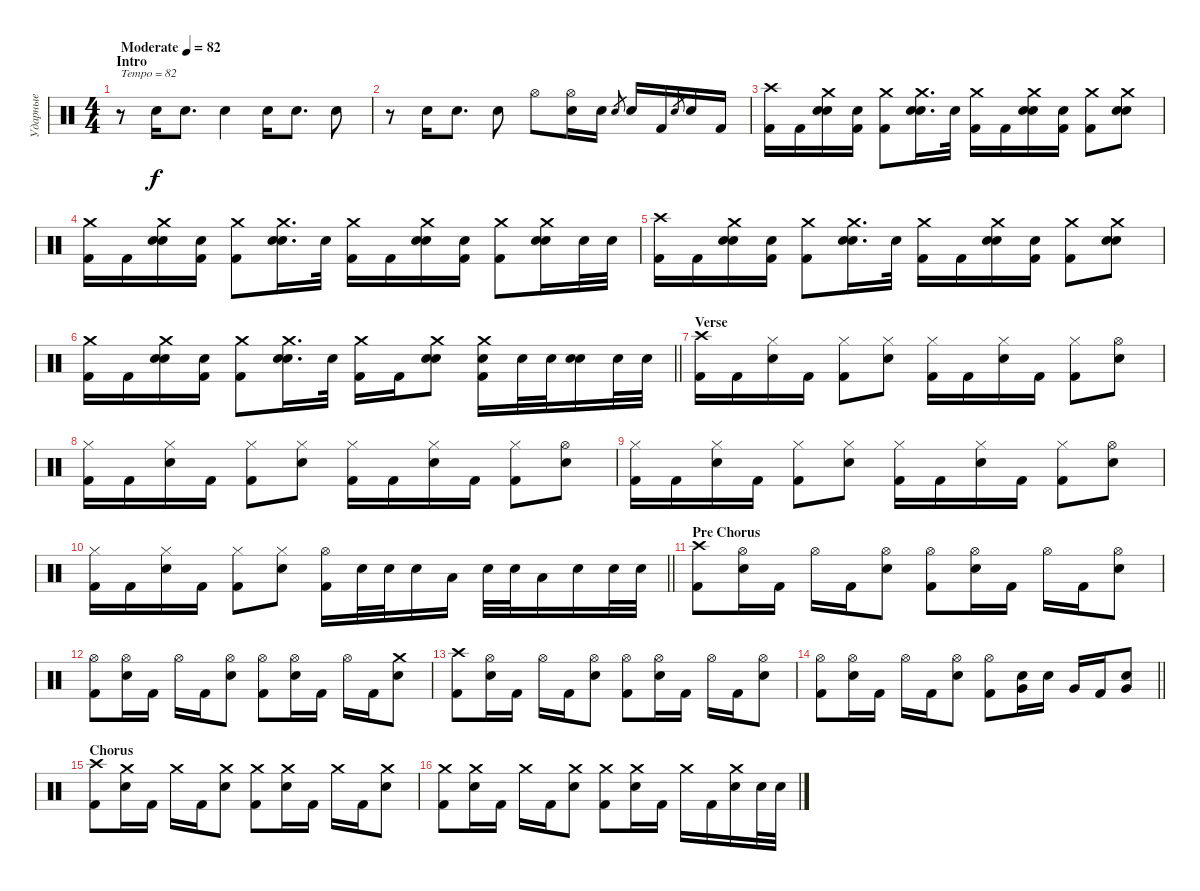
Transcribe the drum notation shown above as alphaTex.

\track ("Ударные" "Ударные") {instrument percussion}
\staff {score}
\articulation defaults
\ts (4 4)
\section ("" "Intro")
\tempo (82 "Moderate")
\clef neutral
\ks c
r.8{txt "Tempo = 82" dy f} "Hand Clap (hit)".16 "Hand Clap (hit)".8{d} "Hand Clap (hit)".4 "Hand Clap (hit)".16 "Hand Clap (hit)".8{d} "Hand Clap (hit)".8 |
r.8 "Hand Clap (hit)".16 "Hand Clap (hit)".8{d} "Hand Clap (hit)".8 "Hi-Hat (open)".8 ("Hand Clap (hit)" "Hi-Hat (open)").16 "Hand Clap (hit)".16 "Snare (hit) 2".8{gr} "Snare (hit) 2".16 "Kick (hit) 2".16 "Snare (hit) 2".8{gr} "Snare (hit) 2".16 "Kick (hit) 2".16 |
("Crash high (hit)" "Kick (hit) 2").16 "Kick (hit) 2".16 ("Crash medium (hit)" "Hand Clap (hit)" "Snare (hit) 2").16 ("Hand Clap (hit)" "Kick (hit) 2").16 ("Crash medium (hit)" "Kick (hit) 2").8 ("Crash medium (hit)" "Hand Clap (hit)" "Snare (hit) 2").16{d} "Snare (hit) 2".32 ("Crash medium (hit)" "Kick (hit) 2").16 "Kick (hit) 2".16 ("Crash medium (hit)" "Hand Clap (hit)" "Snare (hit) 2").16 ("Hand Clap (hit)" "Kick (hit) 2").16 ("Crash medium (hit)" "Kick (hit) 2").8 ("Crash medium (hit)" "Hand Clap (hit)" "Snare (hit) 2").8 |
("Crash medium (hit)" "Kick (hit) 2").16 "Kick (hit) 2".16 ("Crash medium (hit)" "Hand Clap (hit)" "Snare (hit) 2").16 ("Hand Clap (hit)" "Kick (hit) 2").16 ("Crash medium (hit)" "Kick (hit) 2").8 ("Crash medium (hit)" "Hand Clap (hit)" "Snare (hit) 2").16{d} "Snare (hit) 2".32 ("Crash medium (hit)" "Kick (hit) 2").16 "Kick (hit) 2".16 ("Crash medium (hit)" "Hand Clap (hit)" "Snare (hit) 2").16 ("Hand Clap (hit)" "Kick (hit) 2").16 ("Crash medium (hit)" "Kick (hit) 2").8 ("Crash medium (hit)" "Hand Clap (hit)" "Snare (hit) 2").16 "Snare (hit) 2".32 "Snare (hit) 2".32 |
("Crash high (hit)" "Kick (hit) 2").16 "Kick (hit) 2".16 ("Crash medium (hit)" "Hand Clap (hit)" "Snare (hit) 2").16 ("Hand Clap (hit)" "Kick (hit) 2").16 ("Crash medium (hit)" "Kick (hit) 2").8 ("Crash medium (hit)" "Hand Clap (hit)" "Snare (hit) 2").16{d} "Snare (hit) 2".32 ("Crash medium (hit)" "Kick (hit) 2").16 "Kick (hit) 2".16 ("Crash medium (hit)" "Hand Clap (hit)" "Snare (hit) 2").16 ("Hand Clap (hit)" "Kick (hit) 2").16 ("Crash medium (hit)" "Kick (hit) 2").8 ("Crash medium (hit)" "Hand Clap (hit)" "Snare (hit) 2").8 |
\barLineRight lightlight
("Crash medium (hit)" "Kick (hit) 2").16 "Kick (hit) 2".16 ("Crash medium (hit)" "Hand Clap (hit)" "Snare (hit) 2").16 ("Hand Clap (hit)" "Kick (hit) 2").16 ("Crash medium (hit)" "Kick (hit) 2").8 ("Crash medium (hit)" "Hand Clap (hit)" "Snare (hit) 2").16{d} "Snare (hit) 2".32 ("Crash medium (hit)" "Kick (hit) 2").16 "Kick (hit) 2".16 ("Crash medium (hit)" "Hand Clap (hit)" "Snare (hit) 2").8 ("Crash medium (hit)" "Hand Clap (hit)" "Kick (hit) 2").16 "Snare (hit) 2".32 "Snare (hit) 2".32 ("Hand Clap (hit)" "Snare (hit) 2").16 "Snare (hit) 2".32 "Snare (hit) 2".32 |
\section ("" "Verse")
("Crash high (hit)" "Kick (hit) 2").16 "Kick (hit) 2".16 ("Hi-Hat (closed)" "Snare (hit) 2").16 "Kick (hit) 2".16 ("Hi-Hat (closed)" "Kick (hit) 2").8 ("Hi-Hat (closed)" "Snare (hit) 2").8 ("Hi-Hat (closed)" "Kick (hit) 2").16 "Kick (hit) 2".16 ("Hi-Hat (closed)" "Snare (hit) 2").16 "Kick (hit) 2".16 ("Hi-Hat (closed)" "Kick (hit) 2").8 ("Hi-Hat (open)" "Snare (hit) 2").8 |
("Hi-Hat (closed)" "Kick (hit) 2").16 "Kick (hit) 2".16 ("Hi-Hat (closed)" "Snare (hit) 2").16 "Kick (hit) 2".16 ("Hi-Hat (closed)" "Kick (hit) 2").8 ("Hi-Hat (closed)" "Snare (hit) 2").8 ("Hi-Hat (closed)" "Kick (hit) 2").16 "Kick (hit) 2".16 ("Hi-Hat (closed)" "Snare (hit) 2").16 "Kick (hit) 2".16 ("Hi-Hat (closed)" "Kick (hit) 2").8 ("Hi-Hat (open)" "Snare (hit) 2").8 |
("Hi-Hat (closed)" "Kick (hit) 2").16 "Kick (hit) 2".16 ("Hi-Hat (closed)" "Snare (hit) 2").16 "Kick (hit) 2".16 ("Hi-Hat (closed)" "Kick (hit) 2").8 ("Hi-Hat (closed)" "Snare (hit) 2").8 ("Hi-Hat (closed)" "Kick (hit) 2").16 "Kick (hit) 2".16 ("Hi-Hat (closed)" "Snare (hit) 2").16 "Kick (hit) 2".16 ("Hi-Hat (closed)" "Kick (hit) 2").8 ("Hi-Hat (open)" "Snare (hit) 2").8 |
\barLineRight lightlight
("Hi-Hat (closed)" "Kick (hit) 2").16 "Kick (hit) 2".16 ("Hi-Hat (closed)" "Snare (hit) 2").16 "Kick (hit) 2".16 ("Hi-Hat (closed)" "Kick (hit) 2").8 ("Hi-Hat (closed)" "Snare (hit) 2").8 ("Hi-Hat (open)" "Kick (hit) 2").16 "Snare (hit) 2".32 "Snare (hit) 2".32 "Snare (hit) 2".16 "Low Tom (hit)".16 "Snare (hit) 2".32 "Snare (hit) 2".32 "Low Tom (hit)".16 "Snare (hit) 2".16 "Snare (hit) 2".32 "Snare (hit) 2".32 |
\section ("" "Pre Chorus")
("Crash high (hit)" "Kick (hit) 2").8 ("Hi-Hat (open)" "Snare (hit) 2").16 "Kick (hit) 2".16 "Hi-Hat (open)".16 "Kick (hit) 2".16 ("Hi-Hat (open)" "Snare (hit) 2").8 ("Hi-Hat (open)" "Kick (hit) 2").8 ("Hi-Hat (open)" "Snare (hit) 2").16 "Kick (hit) 2".16 "Hi-Hat (open)".16 "Kick (hit) 2".16 ("Hi-Hat (open)" "Snare (hit) 2").8 |
("Hi-Hat (open)" "Kick (hit) 2").8 ("Hi-Hat (open)" "Snare (hit) 2").16 "Kick (hit) 2".16 "Hi-Hat (open)".16 "Kick (hit) 2".16 ("Hi-Hat (open)" "Snare (hit) 2").8 ("Hi-Hat (open)" "Kick (hit) 2").8 ("Hi-Hat (open)" "Snare (hit) 2").16 "Kick (hit) 2".16 "Hi-Hat (open)".16 "Kick (hit) 2".16 ("Crash medium (hit)" "Snare (hit) 2").8 |
("Crash high (hit)" "Kick (hit) 2").8 ("Hi-Hat (open)" "Snare (hit) 2").16 "Kick (hit) 2".16 "Hi-Hat (open)".16 "Kick (hit) 2".16 ("Hi-Hat (open)" "Snare (hit) 2").8 ("Hi-Hat (open)" "Kick (hit) 2").8 ("Hi-Hat (open)" "Snare (hit) 2").16 "Kick (hit) 2".16 "Hi-Hat (open)".16 "Kick (hit) 2".16 ("Hi-Hat (open)" "Snare (hit) 2").8 |
\barLineRight lightlight
("Hi-Hat (open)" "Kick (hit) 2").8 ("Hi-Hat (open)" "Snare (hit) 2").16 "Kick (hit) 2".16 "Hi-Hat (open)".16 "Kick (hit) 2".16 ("Hi-Hat (open)" "Snare (hit) 2").8 ("Hi-Hat (open)" "Kick (hit) 2").8 ("Snare (hit) 2" "Very Low Tom (hit)").16 "Snare (hit) 2".16 "Very Low Tom (hit)".16 "Kick (hit) 2".16 ("Snare (hit) 2" "Very Low Tom (hit)").8 |
\section ("" "Chorus")
("Crash high (hit)" "Kick (hit) 2").8 ("Crash medium (hit)" "Snare (hit) 2").16 "Kick (hit) 2".16 "Crash medium (hit)".16 "Kick (hit) 2".16 ("Crash medium (hit)" "Snare (hit) 2").8 ("Crash medium (hit)" "Kick (hit) 2").8 ("Crash medium (hit)" "Snare (hit) 2").16 "Kick (hit) 2".16 "Crash medium (hit)".16 "Kick (hit) 2".16 ("Crash medium (hit)" "Snare (hit) 2").8 |
("Crash medium (hit)" "Kick (hit) 2").8 ("Crash medium (hit)" "Snare (hit) 2").16 "Kick (hit) 2".16 "Crash medium (hit)".16 "Kick (hit) 2".16 ("Crash medium (hit)" "Snare (hit) 2").8 ("Crash medium (hit)" "Kick (hit) 2").8 ("Crash medium (hit)" "Snare (hit) 2").16 "Kick (hit) 2".16 "Crash medium (hit)".16 "Kick (hit) 2".16 ("Crash medium (hit)" "Snare (hit) 2").16 "Snare (hit) 2".32 "Snare (hit) 2".32
